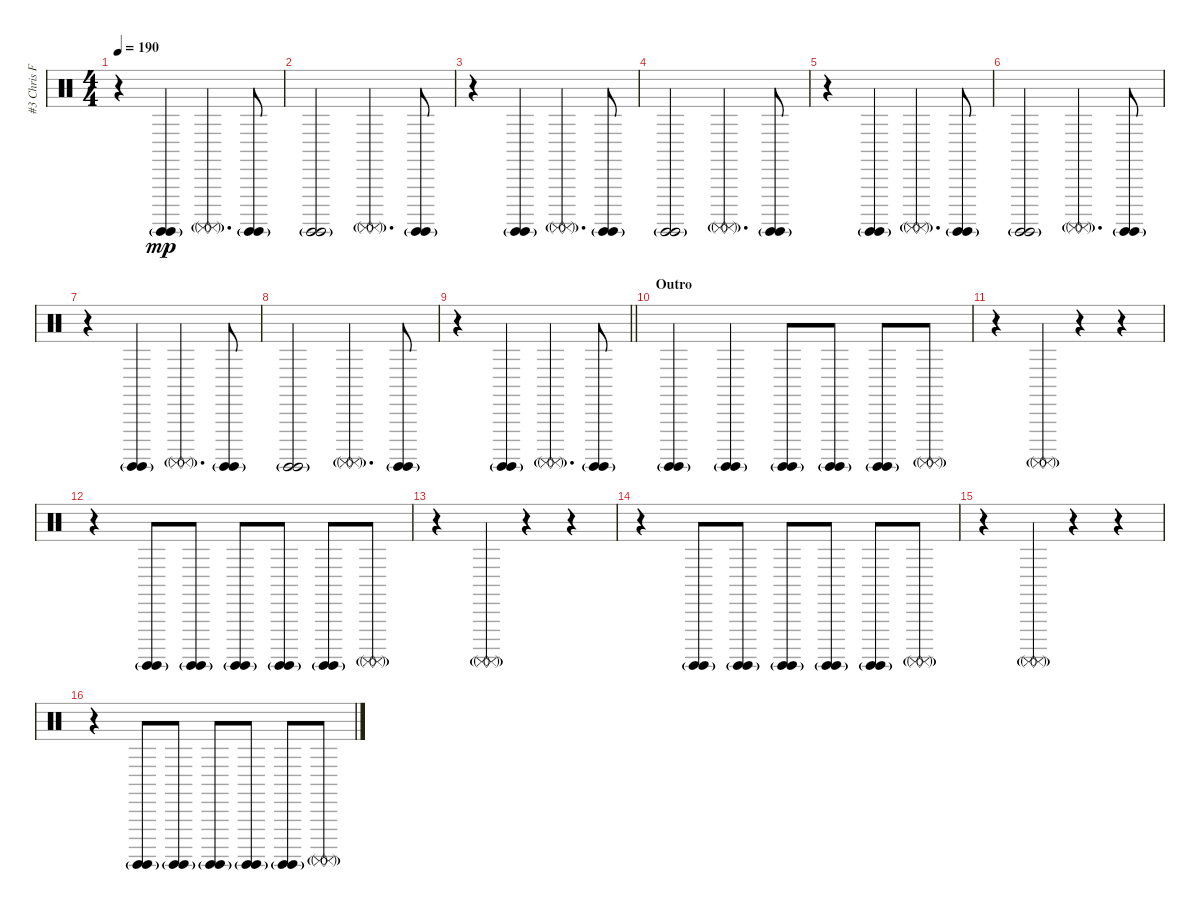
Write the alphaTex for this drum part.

\track ("#3 Chris Fehn" "#3 Chris F") {instrument percussion}
\staff {score}
\articulation defaults
\ts (4 4)
\tempo 190
\clef neutral
\ks c
r.4{dy mp} ("Surdo (hit)"{g} "Surdo (hit)"{g}).4 ("Surdo (mute)"{g} "Surdo (mute)"{g}).4{d} ("Surdo (hit)"{g} "Surdo (hit)"{g}).8 |
("Surdo (hit)"{g} "Surdo (hit)"{g}).2 ("Surdo (mute)"{g} "Surdo (mute)"{g}).4{d} ("Surdo (hit)"{g} "Surdo (hit)"{g}).8 |
r.4 ("Surdo (hit)"{g} "Surdo (hit)"{g}).4 ("Surdo (mute)"{g} "Surdo (mute)"{g}).4{d} ("Surdo (hit)"{g} "Surdo (hit)"{g}).8 |
("Surdo (hit)"{g} "Surdo (hit)"{g}).2 ("Surdo (mute)"{g} "Surdo (mute)"{g}).4{d} ("Surdo (hit)"{g} "Surdo (hit)"{g}).8 |
r.4 ("Surdo (hit)"{g} "Surdo (hit)"{g}).4 ("Surdo (mute)"{g} "Surdo (mute)"{g}).4{d} ("Surdo (hit)"{g} "Surdo (hit)"{g}).8 |
("Surdo (hit)"{g} "Surdo (hit)"{g}).2 ("Surdo (mute)"{g} "Surdo (mute)"{g}).4{d} ("Surdo (hit)"{g} "Surdo (hit)"{g}).8 |
r.4 ("Surdo (hit)"{g} "Surdo (hit)"{g}).4 ("Surdo (mute)"{g} "Surdo (mute)"{g}).4{d} ("Surdo (hit)"{g} "Surdo (hit)"{g}).8 |
("Surdo (hit)"{g} "Surdo (hit)"{g}).2 ("Surdo (mute)"{g} "Surdo (mute)"{g}).4{d} ("Surdo (hit)"{g} "Surdo (hit)"{g}).8 |
\barLineRight lightlight
r.4 ("Surdo (hit)"{g} "Surdo (hit)"{g}).4 ("Surdo (mute)"{g} "Surdo (mute)"{g}).4{d} ("Surdo (hit)"{g} "Surdo (hit)"{g}).8 |
\section ("" "Outro")
("Surdo (hit)"{g} "Surdo (hit)"{g}).4 ("Surdo (hit)"{g} "Surdo (hit)"{g}).4 ("Surdo (hit)"{g} "Surdo (hit)"{g}).8 ("Surdo (hit)"{g} "Surdo (hit)"{g}).8 ("Surdo (hit)"{g} "Surdo (hit)"{g}).8 ("Surdo (mute)"{g} "Surdo (mute)"{g}).8 |
r.4 ("Surdo (mute)"{g} "Surdo (mute)"{g}).4 r.4 r.4 |
r.4 ("Surdo (hit)"{g} "Surdo (hit)"{g}).8 ("Surdo (hit)"{g} "Surdo (hit)"{g}).8 ("Surdo (hit)"{g} "Surdo (hit)"{g}).8 ("Surdo (hit)"{g} "Surdo (hit)"{g}).8 ("Surdo (hit)"{g} "Surdo (hit)"{g}).8 ("Surdo (mute)"{g} "Surdo (mute)"{g}).8 |
r.4 ("Surdo (mute)"{g} "Surdo (mute)"{g}).4 r.4 r.4 |
r.4 ("Surdo (hit)"{g} "Surdo (hit)"{g}).8 ("Surdo (hit)"{g} "Surdo (hit)"{g}).8 ("Surdo (hit)"{g} "Surdo (hit)"{g}).8 ("Surdo (hit)"{g} "Surdo (hit)"{g}).8 ("Surdo (hit)"{g} "Surdo (hit)"{g}).8 ("Surdo (mute)"{g} "Surdo (mute)"{g}).8 |
r.4 ("Surdo (mute)"{g} "Surdo (mute)"{g}).4 r.4 r.4 |
r.4 ("Surdo (hit)"{g} "Surdo (hit)"{g}).8 ("Surdo (hit)"{g} "Surdo (hit)"{g}).8 ("Surdo (hit)"{g} "Surdo (hit)"{g}).8 ("Surdo (hit)"{g} "Surdo (hit)"{g}).8 ("Surdo (hit)"{g} "Surdo (hit)"{g}).8 ("Surdo (mute)"{g} "Surdo (mute)"{g}).8
